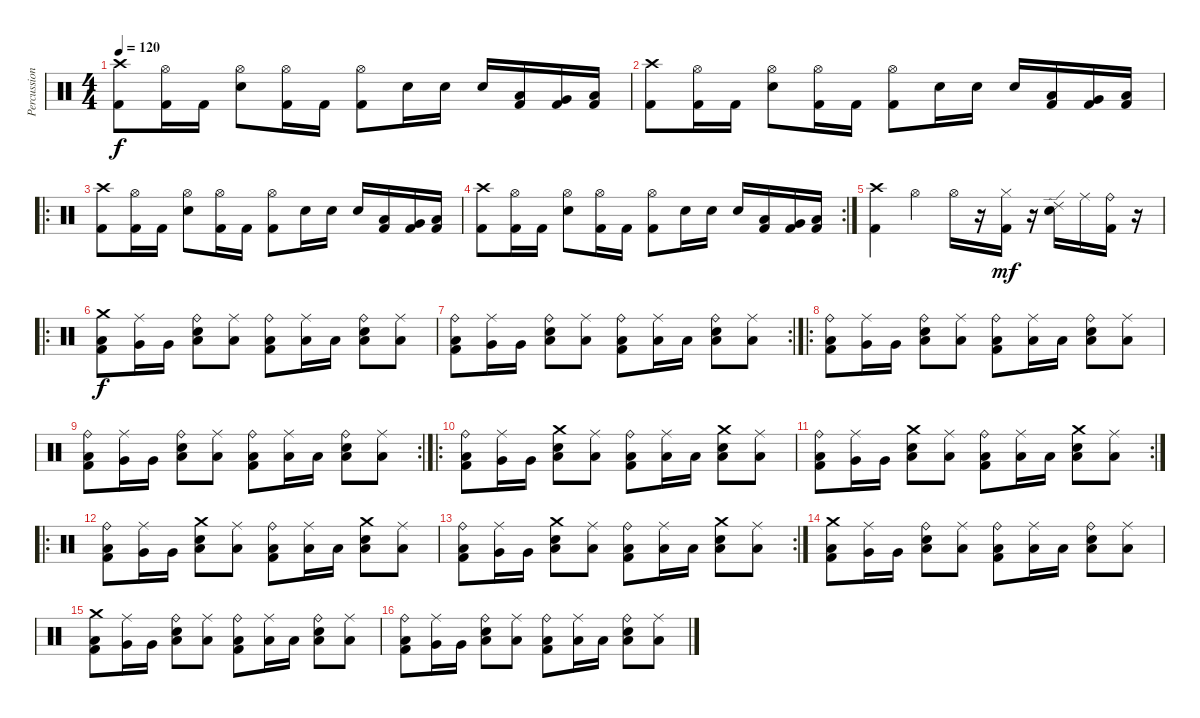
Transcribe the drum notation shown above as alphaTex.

\track ("Percussion" "Percussion") {instrument percussion}
\staff {score}
\articulation defaults
\ts (4 4)
\tempo 120
\clef neutral
\ks c
("Crash high (hit)" "Kick (hit) 2").8{dy f} ("Hi-Hat (open)" "Kick (hit) 2").16 "Kick (hit) 2".16 ("Hi-Hat (open)" "Snare (hit) 2").8 ("Hi-Hat (open)" "Kick (hit) 2").16 "Kick (hit) 2".16 ("Hi-Hat (open)" "Kick (hit) 2").8 "Snare (hit) 2".16 "Snare (hit) 2".16 "Snare (hit) 2".16 ("Low Tom (hit)" "Kick (hit) 2").16 ("Very Low Tom (hit)" "Kick (hit) 2").16 ("Low Floor Tom (hit)" "Kick (hit) 2").16 |
("Crash high (hit)" "Kick (hit) 2").8 ("Hi-Hat (open)" "Kick (hit) 2").16 "Kick (hit) 2".16 ("Hi-Hat (open)" "Snare (hit) 2").8 ("Hi-Hat (open)" "Kick (hit) 2").16 "Kick (hit) 2".16 ("Hi-Hat (open)" "Kick (hit) 2").8 "Snare (hit) 2".16 "Snare (hit) 2".16 "Snare (hit) 2".16 ("Low Tom (hit)" "Kick (hit) 2").16 ("Very Low Tom (hit)" "Kick (hit) 2").16 ("Low Floor Tom (hit)" "Kick (hit) 2").16 |
\ro
("Crash high (hit)" "Kick (hit) 2").8 ("Hi-Hat (open)" "Kick (hit) 2").16 "Kick (hit) 2".16 ("Hi-Hat (open)" "Snare (hit) 2").8 ("Hi-Hat (open)" "Kick (hit) 2").16 "Kick (hit) 2".16 ("Hi-Hat (open)" "Kick (hit) 2").8 "Snare (hit) 2".16 "Snare (hit) 2".16 "Snare (hit) 2".16 ("Low Tom (hit)" "Kick (hit) 2").16 ("Very Low Tom (hit)" "Kick (hit) 2").16 ("Low Floor Tom (hit)" "Kick (hit) 2").16 |
\rc 2
("Crash high (hit)" "Kick (hit) 2").8 ("Hi-Hat (open)" "Kick (hit) 2").16 "Kick (hit) 2".16 ("Hi-Hat (open)" "Snare (hit) 2").8 ("Hi-Hat (open)" "Kick (hit) 2").16 "Kick (hit) 2".16 ("Hi-Hat (open)" "Kick (hit) 2").8 "Snare (hit) 2".16 "Snare (hit) 2".16 "Snare (hit) 2".16 ("Low Tom (hit)" "Kick (hit) 2").16 ("Very Low Tom (hit)" "Kick (hit) 2").16 ("Low Floor Tom (hit)" "Kick (hit) 2").16 |
("Crash high (hit)" "Kick (hit) 2").4 "Hi-Hat (open)".4 "Hi-Hat (open)".16 r.16 ("Hi-Hat (closed)" "Kick (hit) 2").16{dy mf} r.16 ("Ride (edge) 2" "Snare (hit) 2").16 "Ride (middle)".16 ("Ride (bell)" "Kick (hit) 2").16 r.16 |
\ro
("Crash medium (hit)" "Low Floor Tom (hit)" "Kick (hit) 2").8{dy f} ("Very Low Tom (hit)" "Ride (middle)").16 "Very Low Tom (hit)".16 ("Ride (bell)" "Low Floor Tom (hit)" "Snare (hit) 2").8 ("Low Floor Tom (hit)" "Ride (middle)").8 ("Ride (bell)" "Low Floor Tom (hit)" "Kick (hit) 2").8 ("Low Floor Tom (hit)" "Ride (middle)").16 "Low Floor Tom (hit)".16 ("Ride (bell)" "Low Floor Tom (hit)" "Snare (hit) 2").8 ("Low Floor Tom (hit)" "Ride (middle)").8 |
\rc 2
("Ride (bell)" "Low Floor Tom (hit)" "Kick (hit) 2").8 ("Very Low Tom (hit)" "Ride (middle)").16 "Very Low Tom (hit)".16 ("Ride (bell)" "Low Floor Tom (hit)" "Snare (hit) 2").8 ("Low Floor Tom (hit)" "Ride (middle)").8 ("Ride (bell)" "Low Floor Tom (hit)" "Kick (hit) 2").8 ("Low Floor Tom (hit)" "Ride (middle)").16 "Low Floor Tom (hit)".16 ("Ride (bell)" "Low Floor Tom (hit)" "Snare (hit) 2").8 ("Low Floor Tom (hit)" "Ride (middle)").8 |
\ro
("Ride (bell)" "Low Floor Tom (hit)" "Kick (hit) 2").8 ("Very Low Tom (hit)" "Ride (middle)").16 "Very Low Tom (hit)".16 ("Ride (bell)" "Low Floor Tom (hit)" "Snare (hit) 2").8 ("Low Floor Tom (hit)" "Ride (middle)").8 ("Ride (bell)" "Low Floor Tom (hit)" "Kick (hit) 2").8 ("Low Floor Tom (hit)" "Ride (middle)").16 "Low Floor Tom (hit)".16 ("Ride (bell)" "Low Floor Tom (hit)" "Snare (hit) 2").8 ("Low Floor Tom (hit)" "Ride (middle)").8 |
\rc 2
("Ride (bell)" "Low Floor Tom (hit)" "Kick (hit) 2").8 ("Very Low Tom (hit)" "Ride (middle)").16 "Very Low Tom (hit)".16 ("Ride (bell)" "Low Floor Tom (hit)" "Snare (hit) 2").8 ("Low Floor Tom (hit)" "Ride (middle)").8 ("Ride (bell)" "Low Floor Tom (hit)" "Kick (hit) 2").8 ("Low Floor Tom (hit)" "Ride (middle)").16 "Low Floor Tom (hit)".16 ("Ride (bell)" "Low Floor Tom (hit)" "Snare (hit) 2").8 ("Low Floor Tom (hit)" "Ride (middle)").8 |
\ro
("Ride (bell)" "Low Floor Tom (hit)" "Kick (hit) 2").8 ("Very Low Tom (hit)" "Ride (middle)").16 "Very Low Tom (hit)".16 ("Crash medium (hit)" "Low Floor Tom (hit)" "Snare (hit) 2").8 ("Low Floor Tom (hit)" "Ride (middle)").8 ("Ride (bell)" "Low Floor Tom (hit)" "Kick (hit) 2").8 ("Low Floor Tom (hit)" "Ride (middle)").16 "Low Floor Tom (hit)".16 ("Crash medium (hit)" "Low Floor Tom (hit)" "Snare (hit) 2").8 ("Low Floor Tom (hit)" "Ride (middle)").8 |
\rc 2
("Ride (bell)" "Low Floor Tom (hit)" "Kick (hit) 2").8 ("Very Low Tom (hit)" "Ride (middle)").16 "Very Low Tom (hit)".16 ("Crash medium (hit)" "Low Floor Tom (hit)" "Snare (hit) 2").8 ("Low Floor Tom (hit)" "Ride (middle)").8 ("Ride (bell)" "Low Floor Tom (hit)" "Kick (hit) 2").8 ("Low Floor Tom (hit)" "Ride (middle)").16 "Low Floor Tom (hit)".16 ("Crash medium (hit)" "Low Floor Tom (hit)" "Snare (hit) 2").8 ("Low Floor Tom (hit)" "Ride (middle)").8 |
\ro
("Ride (bell)" "Low Floor Tom (hit)" "Kick (hit) 2").8 ("Very Low Tom (hit)" "Ride (middle)").16 "Very Low Tom (hit)".16 ("Crash medium (hit)" "Low Floor Tom (hit)" "Snare (hit) 2").8 ("Low Floor Tom (hit)" "Ride (middle)").8 ("Ride (bell)" "Low Floor Tom (hit)" "Kick (hit) 2").8 ("Low Floor Tom (hit)" "Ride (middle)").16 "Low Floor Tom (hit)".16 ("Crash medium (hit)" "Low Floor Tom (hit)" "Snare (hit) 2").8 ("Low Floor Tom (hit)" "Ride (middle)").8 |
\rc 2
("Ride (bell)" "Low Floor Tom (hit)" "Kick (hit) 2").8 ("Very Low Tom (hit)" "Ride (middle)").16 "Very Low Tom (hit)".16 ("Crash medium (hit)" "Low Floor Tom (hit)" "Snare (hit) 2").8 ("Low Floor Tom (hit)" "Ride (middle)").8 ("Ride (bell)" "Low Floor Tom (hit)" "Kick (hit) 2").8 ("Low Floor Tom (hit)" "Ride (middle)").16 "Low Floor Tom (hit)".16 ("Crash medium (hit)" "Low Floor Tom (hit)" "Snare (hit) 2").8 ("Low Floor Tom (hit)" "Ride (middle)").8 |
("Crash medium (hit)" "Low Floor Tom (hit)" "Kick (hit) 2").8 ("Very Low Tom (hit)" "Ride (middle)").16 "Very Low Tom (hit)".16 ("Ride (bell)" "Low Floor Tom (hit)" "Snare (hit) 2").8 ("Low Floor Tom (hit)" "Ride (middle)").8 ("Ride (bell)" "Low Floor Tom (hit)" "Kick (hit) 2").8 ("Low Floor Tom (hit)" "Ride (middle)").16 "Low Floor Tom (hit)".16 ("Ride (bell)" "Low Floor Tom (hit)" "Snare (hit) 2").8 ("Low Floor Tom (hit)" "Ride (middle)").8 |
("Crash medium (hit)" "Low Floor Tom (hit)" "Kick (hit) 2").8 ("Very Low Tom (hit)" "Ride (middle)").16 "Very Low Tom (hit)".16 ("Ride (bell)" "Low Floor Tom (hit)" "Snare (hit) 2").8 ("Low Floor Tom (hit)" "Ride (middle)").8 ("Ride (bell)" "Low Floor Tom (hit)" "Kick (hit) 2").8 ("Low Floor Tom (hit)" "Ride (middle)").16 "Low Floor Tom (hit)".16 ("Ride (bell)" "Low Floor Tom (hit)" "Snare (hit) 2").8 ("Low Floor Tom (hit)" "Ride (middle)").8 |
("Ride (bell)" "Low Floor Tom (hit)" "Kick (hit) 2").8 ("Very Low Tom (hit)" "Ride (middle)").16 "Very Low Tom (hit)".16 ("Ride (bell)" "Low Floor Tom (hit)" "Snare (hit) 2").8 ("Low Floor Tom (hit)" "Ride (middle)").8 ("Ride (bell)" "Low Floor Tom (hit)" "Kick (hit) 2").8 ("Low Floor Tom (hit)" "Ride (middle)").16 "Low Floor Tom (hit)".16 ("Ride (bell)" "Low Floor Tom (hit)" "Snare (hit) 2").8 ("Low Floor Tom (hit)" "Ride (middle)").8
